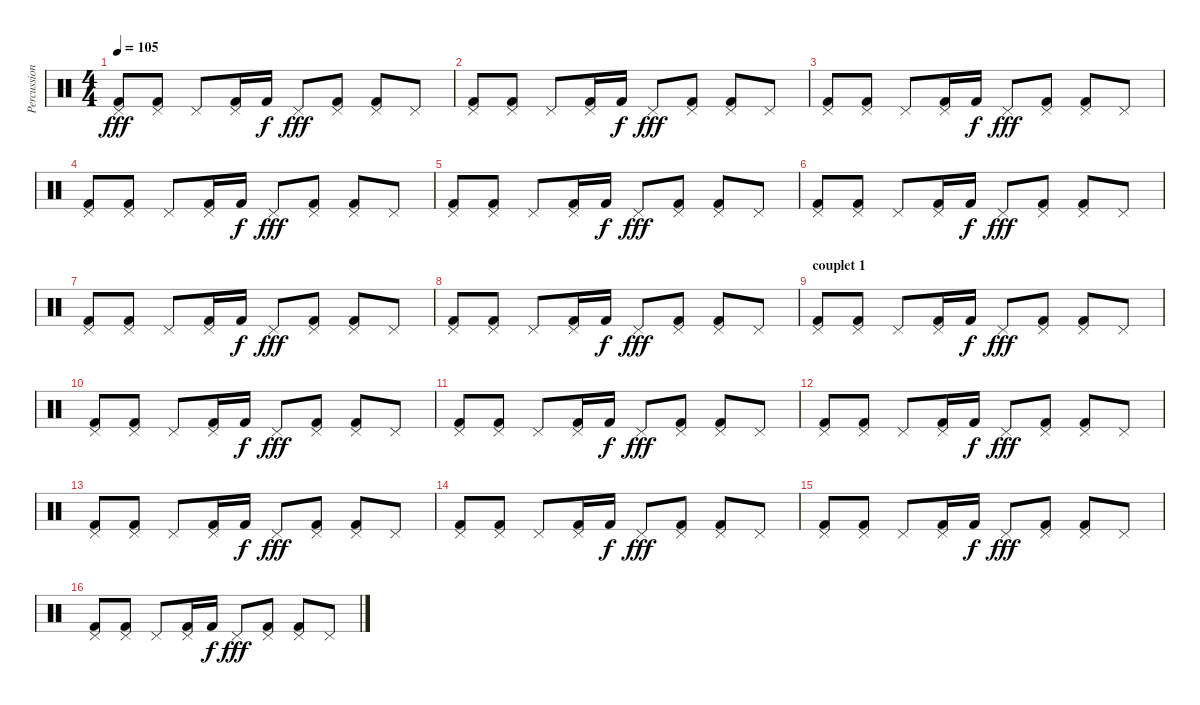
\track ("Percussions" "Percussion") {instrument percussion}
\staff {score}
\articulation defaults
\ts (4 4)
\tempo 105
\clef neutral
\ks c
("Pedal Hi-Hat (hit)" "Kick (hit) 2").8{dy fff} ("Pedal Hi-Hat (hit)" "Kick (hit) 2").8 "Pedal Hi-Hat (hit)".8 ("Pedal Hi-Hat (hit)" "Kick (hit) 2").16 "Kick (hit) 2".16{dy f} "Pedal Hi-Hat (hit)".8{dy fff} ("Pedal Hi-Hat (hit)" "Kick (hit) 2").8 ("Pedal Hi-Hat (hit)" "Kick (hit) 2").8 "Pedal Hi-Hat (hit)".8 |
("Pedal Hi-Hat (hit)" "Kick (hit) 2").8 ("Pedal Hi-Hat (hit)" "Kick (hit) 2").8 "Pedal Hi-Hat (hit)".8 ("Pedal Hi-Hat (hit)" "Kick (hit) 2").16 "Kick (hit) 2".16{dy f} "Pedal Hi-Hat (hit)".8{dy fff} ("Pedal Hi-Hat (hit)" "Kick (hit) 2").8 ("Pedal Hi-Hat (hit)" "Kick (hit) 2").8 "Pedal Hi-Hat (hit)".8 |
("Pedal Hi-Hat (hit)" "Kick (hit) 2").8 ("Pedal Hi-Hat (hit)" "Kick (hit) 2").8 "Pedal Hi-Hat (hit)".8 ("Pedal Hi-Hat (hit)" "Kick (hit) 2").16 "Kick (hit) 2".16{dy f} "Pedal Hi-Hat (hit)".8{dy fff} ("Pedal Hi-Hat (hit)" "Kick (hit) 2").8 ("Pedal Hi-Hat (hit)" "Kick (hit) 2").8 "Pedal Hi-Hat (hit)".8 |
("Pedal Hi-Hat (hit)" "Kick (hit) 2").8 ("Pedal Hi-Hat (hit)" "Kick (hit) 2").8 "Pedal Hi-Hat (hit)".8 ("Pedal Hi-Hat (hit)" "Kick (hit) 2").16 "Kick (hit) 2".16{dy f} "Pedal Hi-Hat (hit)".8{dy fff} ("Pedal Hi-Hat (hit)" "Kick (hit) 2").8 ("Pedal Hi-Hat (hit)" "Kick (hit) 2").8 "Pedal Hi-Hat (hit)".8 |
("Pedal Hi-Hat (hit)" "Kick (hit) 2").8 ("Pedal Hi-Hat (hit)" "Kick (hit) 2").8 "Pedal Hi-Hat (hit)".8 ("Pedal Hi-Hat (hit)" "Kick (hit) 2").16 "Kick (hit) 2".16{dy f} "Pedal Hi-Hat (hit)".8{dy fff} ("Pedal Hi-Hat (hit)" "Kick (hit) 2").8 ("Pedal Hi-Hat (hit)" "Kick (hit) 2").8 "Pedal Hi-Hat (hit)".8 |
("Pedal Hi-Hat (hit)" "Kick (hit) 2").8 ("Pedal Hi-Hat (hit)" "Kick (hit) 2").8 "Pedal Hi-Hat (hit)".8 ("Pedal Hi-Hat (hit)" "Kick (hit) 2").16 "Kick (hit) 2".16{dy f} "Pedal Hi-Hat (hit)".8{dy fff} ("Pedal Hi-Hat (hit)" "Kick (hit) 2").8 ("Pedal Hi-Hat (hit)" "Kick (hit) 2").8 "Pedal Hi-Hat (hit)".8 |
("Pedal Hi-Hat (hit)" "Kick (hit) 2").8 ("Pedal Hi-Hat (hit)" "Kick (hit) 2").8 "Pedal Hi-Hat (hit)".8 ("Pedal Hi-Hat (hit)" "Kick (hit) 2").16 "Kick (hit) 2".16{dy f} "Pedal Hi-Hat (hit)".8{dy fff} ("Pedal Hi-Hat (hit)" "Kick (hit) 2").8 ("Pedal Hi-Hat (hit)" "Kick (hit) 2").8 "Pedal Hi-Hat (hit)".8 |
("Pedal Hi-Hat (hit)" "Kick (hit) 2").8 ("Pedal Hi-Hat (hit)" "Kick (hit) 2").8 "Pedal Hi-Hat (hit)".8 ("Pedal Hi-Hat (hit)" "Kick (hit) 2").16 "Kick (hit) 2".16{dy f} "Pedal Hi-Hat (hit)".8{dy fff} ("Pedal Hi-Hat (hit)" "Kick (hit) 2").8 ("Pedal Hi-Hat (hit)" "Kick (hit) 2").8 "Pedal Hi-Hat (hit)".8 |
\section ("" "couplet 1")
("Pedal Hi-Hat (hit)" "Kick (hit) 2").8 ("Pedal Hi-Hat (hit)" "Kick (hit) 2").8 "Pedal Hi-Hat (hit)".8 ("Pedal Hi-Hat (hit)" "Kick (hit) 2").16 "Kick (hit) 2".16{dy f} "Pedal Hi-Hat (hit)".8{dy fff} ("Pedal Hi-Hat (hit)" "Kick (hit) 2").8 ("Pedal Hi-Hat (hit)" "Kick (hit) 2").8 "Pedal Hi-Hat (hit)".8 |
("Pedal Hi-Hat (hit)" "Kick (hit) 2").8 ("Pedal Hi-Hat (hit)" "Kick (hit) 2").8 "Pedal Hi-Hat (hit)".8 ("Pedal Hi-Hat (hit)" "Kick (hit) 2").16 "Kick (hit) 2".16{dy f} "Pedal Hi-Hat (hit)".8{dy fff} ("Pedal Hi-Hat (hit)" "Kick (hit) 2").8 ("Pedal Hi-Hat (hit)" "Kick (hit) 2").8 "Pedal Hi-Hat (hit)".8 |
("Pedal Hi-Hat (hit)" "Kick (hit) 2").8 ("Pedal Hi-Hat (hit)" "Kick (hit) 2").8 "Pedal Hi-Hat (hit)".8 ("Pedal Hi-Hat (hit)" "Kick (hit) 2").16 "Kick (hit) 2".16{dy f} "Pedal Hi-Hat (hit)".8{dy fff} ("Pedal Hi-Hat (hit)" "Kick (hit) 2").8 ("Pedal Hi-Hat (hit)" "Kick (hit) 2").8 "Pedal Hi-Hat (hit)".8 |
("Pedal Hi-Hat (hit)" "Kick (hit) 2").8 ("Pedal Hi-Hat (hit)" "Kick (hit) 2").8 "Pedal Hi-Hat (hit)".8 ("Pedal Hi-Hat (hit)" "Kick (hit) 2").16 "Kick (hit) 2".16{dy f} "Pedal Hi-Hat (hit)".8{dy fff} ("Pedal Hi-Hat (hit)" "Kick (hit) 2").8 ("Pedal Hi-Hat (hit)" "Kick (hit) 2").8 "Pedal Hi-Hat (hit)".8 |
("Pedal Hi-Hat (hit)" "Kick (hit) 2").8 ("Pedal Hi-Hat (hit)" "Kick (hit) 2").8 "Pedal Hi-Hat (hit)".8 ("Pedal Hi-Hat (hit)" "Kick (hit) 2").16 "Kick (hit) 2".16{dy f} "Pedal Hi-Hat (hit)".8{dy fff} ("Pedal Hi-Hat (hit)" "Kick (hit) 2").8 ("Pedal Hi-Hat (hit)" "Kick (hit) 2").8 "Pedal Hi-Hat (hit)".8 |
("Pedal Hi-Hat (hit)" "Kick (hit) 2").8 ("Pedal Hi-Hat (hit)" "Kick (hit) 2").8 "Pedal Hi-Hat (hit)".8 ("Pedal Hi-Hat (hit)" "Kick (hit) 2").16 "Kick (hit) 2".16{dy f} "Pedal Hi-Hat (hit)".8{dy fff} ("Pedal Hi-Hat (hit)" "Kick (hit) 2").8 ("Pedal Hi-Hat (hit)" "Kick (hit) 2").8 "Pedal Hi-Hat (hit)".8 |
("Pedal Hi-Hat (hit)" "Kick (hit) 2").8 ("Pedal Hi-Hat (hit)" "Kick (hit) 2").8 "Pedal Hi-Hat (hit)".8 ("Pedal Hi-Hat (hit)" "Kick (hit) 2").16 "Kick (hit) 2".16{dy f} "Pedal Hi-Hat (hit)".8{dy fff} ("Pedal Hi-Hat (hit)" "Kick (hit) 2").8 ("Pedal Hi-Hat (hit)" "Kick (hit) 2").8 "Pedal Hi-Hat (hit)".8 |
("Pedal Hi-Hat (hit)" "Kick (hit) 2").8 ("Pedal Hi-Hat (hit)" "Kick (hit) 2").8 "Pedal Hi-Hat (hit)".8 ("Pedal Hi-Hat (hit)" "Kick (hit) 2").16 "Kick (hit) 2".16{dy f} "Pedal Hi-Hat (hit)".8{dy fff} ("Pedal Hi-Hat (hit)" "Kick (hit) 2").8 ("Pedal Hi-Hat (hit)" "Kick (hit) 2").8 "Pedal Hi-Hat (hit)".8
